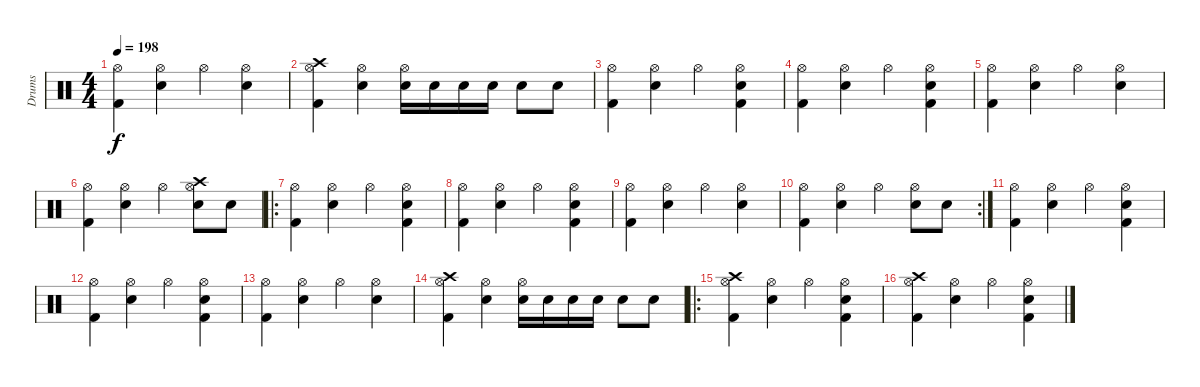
\track ("Drums" "Drums") {instrument percussion}
\staff {score}
\articulation defaults
\ts (4 4)
\tempo 198
\clef neutral
\ks c
("Hi-Hat (open)" "Kick (hit) 2").4{dy f} ("Hi-Hat (open)" "Snare (hit) 2").4 "Hi-Hat (open)".4 ("Hi-Hat (open)" "Snare (hit) 2").4 |
("Hi-Hat (open)" "Kick (hit) 2" "Crash high (hit)").4 ("Hi-Hat (open)" "Snare (hit) 2").4 ("Hi-Hat (open)" "Snare (hit) 2").16 "Snare (hit) 2".16 "Snare (hit) 2".16 "Snare (hit) 2".16 "Snare (hit) 2".8 "Snare (hit) 2".8 |
("Hi-Hat (open)" "Kick (hit) 2").4 ("Hi-Hat (open)" "Snare (hit) 2").4 "Hi-Hat (open)".4 ("Hi-Hat (open)" "Snare (hit) 2" "Kick (hit) 2").4 |
("Hi-Hat (open)" "Kick (hit) 2").4 ("Hi-Hat (open)" "Snare (hit) 2").4 "Hi-Hat (open)".4 ("Hi-Hat (open)" "Snare (hit) 2" "Kick (hit) 2").4 |
("Hi-Hat (open)" "Kick (hit) 2").4 ("Hi-Hat (open)" "Snare (hit) 2").4 "Hi-Hat (open)".4 ("Hi-Hat (open)" "Snare (hit) 2").4 |
("Hi-Hat (open)" "Kick (hit) 2").4 ("Hi-Hat (open)" "Snare (hit) 2").4 "Hi-Hat (open)".4 ("Hi-Hat (open)" "Snare (hit) 2" "Crash high (hit)").8 "Snare (hit) 2".8 |
\ro
("Hi-Hat (open)" "Kick (hit) 2").4 ("Hi-Hat (open)" "Snare (hit) 2").4 "Hi-Hat (open)".4 ("Hi-Hat (open)" "Snare (hit) 2" "Kick (hit) 2").4 |
("Hi-Hat (open)" "Kick (hit) 2").4 ("Hi-Hat (open)" "Snare (hit) 2").4 "Hi-Hat (open)".4 ("Hi-Hat (open)" "Snare (hit) 2" "Kick (hit) 2").4 |
("Hi-Hat (open)" "Kick (hit) 2").4 ("Hi-Hat (open)" "Snare (hit) 2").4 "Hi-Hat (open)".4 ("Hi-Hat (open)" "Snare (hit) 2").4 |
\rc 2
("Hi-Hat (open)" "Kick (hit) 2").4 ("Hi-Hat (open)" "Snare (hit) 2").4 "Hi-Hat (open)".4 ("Hi-Hat (open)" "Snare (hit) 2").8 "Snare (hit) 2".8 |
("Hi-Hat (open)" "Kick (hit) 2").4 ("Hi-Hat (open)" "Snare (hit) 2").4 "Hi-Hat (open)".4 ("Hi-Hat (open)" "Snare (hit) 2" "Kick (hit) 2").4 |
("Hi-Hat (open)" "Kick (hit) 2").4 ("Hi-Hat (open)" "Snare (hit) 2").4 "Hi-Hat (open)".4 ("Hi-Hat (open)" "Snare (hit) 2" "Kick (hit) 2").4 |
("Hi-Hat (open)" "Kick (hit) 2").4 ("Hi-Hat (open)" "Snare (hit) 2").4 "Hi-Hat (open)".4 ("Hi-Hat (open)" "Snare (hit) 2").4 |
("Hi-Hat (open)" "Kick (hit) 2" "Crash high (hit)").4 ("Hi-Hat (open)" "Snare (hit) 2").4 ("Hi-Hat (open)" "Snare (hit) 2").16 "Snare (hit) 2".16 "Snare (hit) 2".16 "Snare (hit) 2".16 "Snare (hit) 2".8 "Snare (hit) 2".8 |
\ro
("Hi-Hat (open)" "Kick (hit) 2" "Crash high (hit)").4 ("Hi-Hat (open)" "Snare (hit) 2").4 "Hi-Hat (open)".4 ("Hi-Hat (open)" "Snare (hit) 2" "Kick (hit) 2").4 |
("Hi-Hat (open)" "Kick (hit) 2" "Crash high (hit)").4 ("Hi-Hat (open)" "Snare (hit) 2").4 "Hi-Hat (open)".4 ("Hi-Hat (open)" "Snare (hit) 2" "Kick (hit) 2").4
